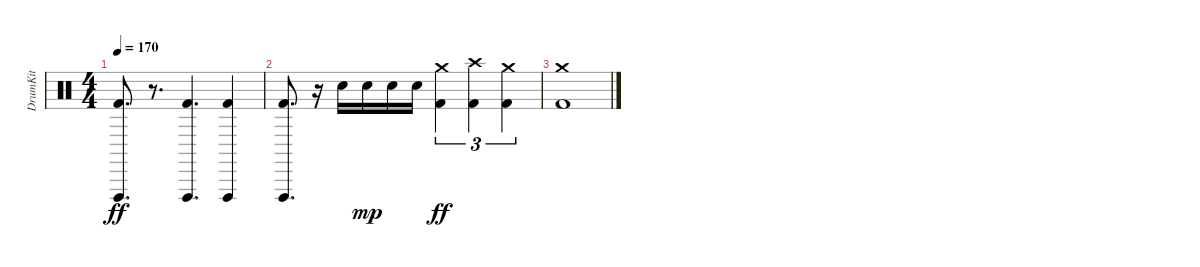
\track ("DrumKit" "DrumKit") {instrument percussion}
\staff {score}
\articulation defaults
\ts (4 4)
\tempo 170
\clef neutral
\ks c
("Kick (hit) 2" "Vibraslap (hit)").8{d dy ff} r.8{d} ("Kick (hit) 2" "Vibraslap (hit)").4{d} ("Kick (hit) 2" "Vibraslap (hit)").4 |
("Kick (hit) 2" "Vibraslap (hit)").8{d} r.16 "Snare (hit) 2".16 "Snare (hit) 2".16{dy mp} "Snare (hit) 2".16 "Snare (hit) 2".16 ("Kick (hit) 2" "Crash medium (hit)").4{tu (3 2) dy ff} ("Kick (hit) 2" "Crash high (hit)").4{tu (3 2)} ("Kick (hit) 2" "Crash medium (hit)").4{tu (3 2)} |
("Kick (hit) 2" "Crash medium (hit)").1
